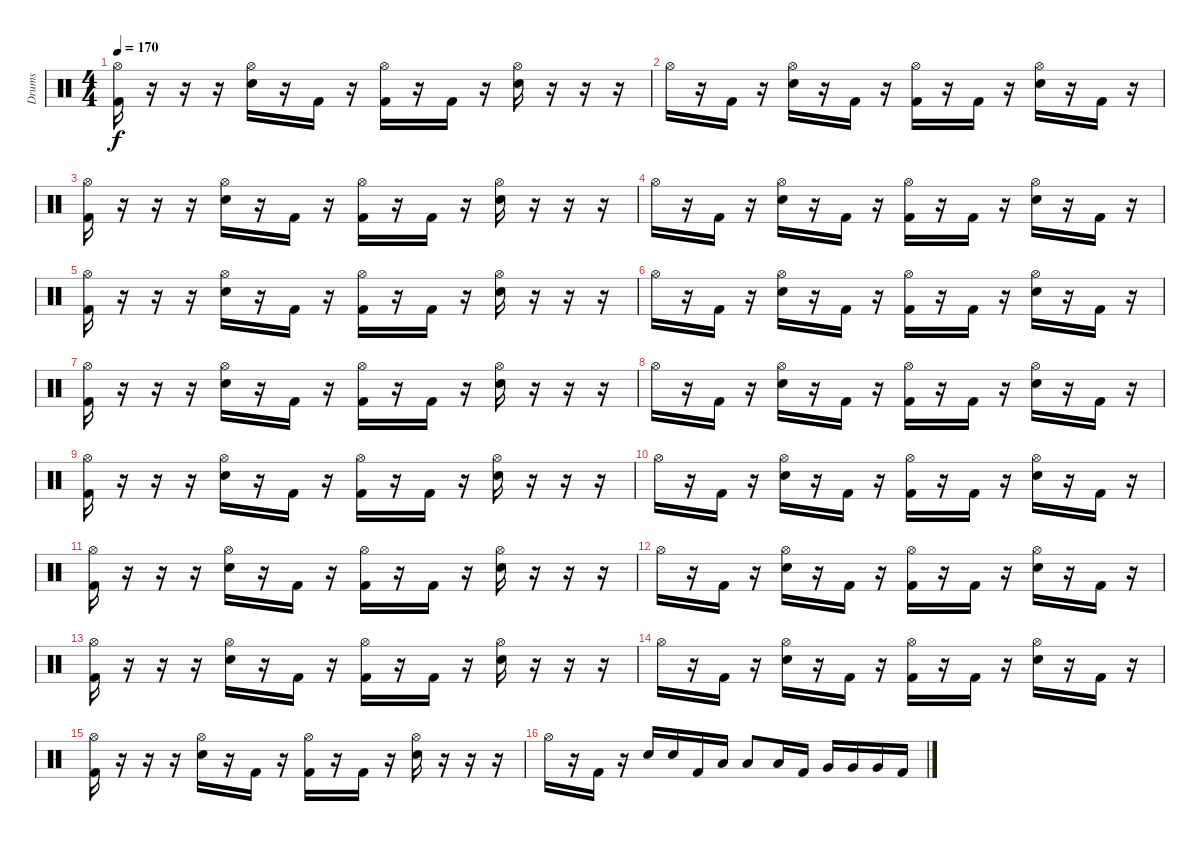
\track ("Drums" "Drums") {instrument percussion}
\staff {score}
\articulation defaults
\ts (4 4)
\tempo 170
\clef neutral
\ks c
("Hi-Hat (open)" "Kick (hit) 2").16{dy f} r.16 r.16 r.16 ("Hi-Hat (open)" "Snare (hit) 2").16 r.16 "Kick (hit) 2".16 r.16 ("Hi-Hat (open)" "Kick (hit) 2").16 r.16 "Kick (hit) 2".16 r.16 ("Hi-Hat (open)" "Snare (hit) 2").16 r.16 r.16 r.16 |
"Hi-Hat (open)".16 r.16 "Kick (hit) 2".16 r.16 ("Hi-Hat (open)" "Snare (hit) 2").16 r.16 "Kick (hit) 2".16 r.16 ("Hi-Hat (open)" "Kick (hit) 2").16 r.16 "Kick (hit) 2".16 r.16 ("Hi-Hat (open)" "Snare (hit) 2").16 r.16 "Kick (hit) 2".16 r.16 |
("Hi-Hat (open)" "Kick (hit) 2").16 r.16 r.16 r.16 ("Hi-Hat (open)" "Snare (hit) 2").16 r.16 "Kick (hit) 2".16 r.16 ("Hi-Hat (open)" "Kick (hit) 2").16 r.16 "Kick (hit) 2".16 r.16 ("Hi-Hat (open)" "Snare (hit) 2").16 r.16 r.16 r.16 |
"Hi-Hat (open)".16 r.16 "Kick (hit) 2".16 r.16 ("Hi-Hat (open)" "Snare (hit) 2").16 r.16 "Kick (hit) 2".16 r.16 ("Hi-Hat (open)" "Kick (hit) 2").16 r.16 "Kick (hit) 2".16 r.16 ("Hi-Hat (open)" "Snare (hit) 2").16 r.16 "Kick (hit) 2".16 r.16 |
("Hi-Hat (open)" "Kick (hit) 2").16 r.16 r.16 r.16 ("Hi-Hat (open)" "Snare (hit) 2").16 r.16 "Kick (hit) 2".16 r.16 ("Hi-Hat (open)" "Kick (hit) 2").16 r.16 "Kick (hit) 2".16 r.16 ("Hi-Hat (open)" "Snare (hit) 2").16 r.16 r.16 r.16 |
"Hi-Hat (open)".16 r.16 "Kick (hit) 2".16 r.16 ("Hi-Hat (open)" "Snare (hit) 2").16 r.16 "Kick (hit) 2".16 r.16 ("Hi-Hat (open)" "Kick (hit) 2").16 r.16 "Kick (hit) 2".16 r.16 ("Hi-Hat (open)" "Snare (hit) 2").16 r.16 "Kick (hit) 2".16 r.16 |
("Hi-Hat (open)" "Kick (hit) 2").16 r.16 r.16 r.16 ("Hi-Hat (open)" "Snare (hit) 2").16 r.16 "Kick (hit) 2".16 r.16 ("Hi-Hat (open)" "Kick (hit) 2").16 r.16 "Kick (hit) 2".16 r.16 ("Hi-Hat (open)" "Snare (hit) 2").16 r.16 r.16 r.16 |
"Hi-Hat (open)".16 r.16 "Kick (hit) 2".16 r.16 ("Hi-Hat (open)" "Snare (hit) 2").16 r.16 "Kick (hit) 2".16 r.16 ("Hi-Hat (open)" "Kick (hit) 2").16 r.16 "Kick (hit) 2".16 r.16 ("Hi-Hat (open)" "Snare (hit) 2").16 r.16 "Kick (hit) 2".16 r.16 |
("Hi-Hat (open)" "Kick (hit) 2").16 r.16 r.16 r.16 ("Hi-Hat (open)" "Snare (hit) 2").16 r.16 "Kick (hit) 2".16 r.16 ("Hi-Hat (open)" "Kick (hit) 2").16 r.16 "Kick (hit) 2".16 r.16 ("Hi-Hat (open)" "Snare (hit) 2").16 r.16 r.16 r.16 |
"Hi-Hat (open)".16 r.16 "Kick (hit) 2".16 r.16 ("Hi-Hat (open)" "Snare (hit) 2").16 r.16 "Kick (hit) 2".16 r.16 ("Hi-Hat (open)" "Kick (hit) 2").16 r.16 "Kick (hit) 2".16 r.16 ("Hi-Hat (open)" "Snare (hit) 2").16 r.16 "Kick (hit) 2".16 r.16 |
("Hi-Hat (open)" "Kick (hit) 2").16 r.16 r.16 r.16 ("Hi-Hat (open)" "Snare (hit) 2").16 r.16 "Kick (hit) 2".16 r.16 ("Hi-Hat (open)" "Kick (hit) 2").16 r.16 "Kick (hit) 2".16 r.16 ("Hi-Hat (open)" "Snare (hit) 2").16 r.16 r.16 r.16 |
"Hi-Hat (open)".16 r.16 "Kick (hit) 2".16 r.16 ("Hi-Hat (open)" "Snare (hit) 2").16 r.16 "Kick (hit) 2".16 r.16 ("Hi-Hat (open)" "Kick (hit) 2").16 r.16 "Kick (hit) 2".16 r.16 ("Hi-Hat (open)" "Snare (hit) 2").16 r.16 "Kick (hit) 2".16 r.16 |
("Hi-Hat (open)" "Kick (hit) 2").16 r.16 r.16 r.16 ("Hi-Hat (open)" "Snare (hit) 2").16 r.16 "Kick (hit) 2".16 r.16 ("Hi-Hat (open)" "Kick (hit) 2").16 r.16 "Kick (hit) 2".16 r.16 ("Hi-Hat (open)" "Snare (hit) 2").16 r.16 r.16 r.16 |
"Hi-Hat (open)".16 r.16 "Kick (hit) 2".16 r.16 ("Hi-Hat (open)" "Snare (hit) 2").16 r.16 "Kick (hit) 2".16 r.16 ("Hi-Hat (open)" "Kick (hit) 2").16 r.16 "Kick (hit) 2".16 r.16 ("Hi-Hat (open)" "Snare (hit) 2").16 r.16 "Kick (hit) 2".16 r.16 |
("Hi-Hat (open)" "Kick (hit) 2").16 r.16 r.16 r.16 ("Hi-Hat (open)" "Snare (hit) 2").16 r.16 "Kick (hit) 2".16 r.16 ("Hi-Hat (open)" "Kick (hit) 2").16 r.16 "Kick (hit) 2".16 r.16 ("Hi-Hat (open)" "Snare (hit) 2").16 r.16 r.16 r.16 |
"Hi-Hat (open)".16 r.16 "Kick (hit) 2".16 r.16 "Snare (hit) 2".16 "Snare (hit) 2".16 "Kick (hit) 2".16 "Low Tom (hit)".16 "Low Tom (hit)".8 "Low Tom (hit)".16 "Kick (hit) 2".16 "Very Low Tom (hit)".16 "Very Low Tom (hit)".16 "Very Low Tom (hit)".16 "Kick (hit) 2".16
